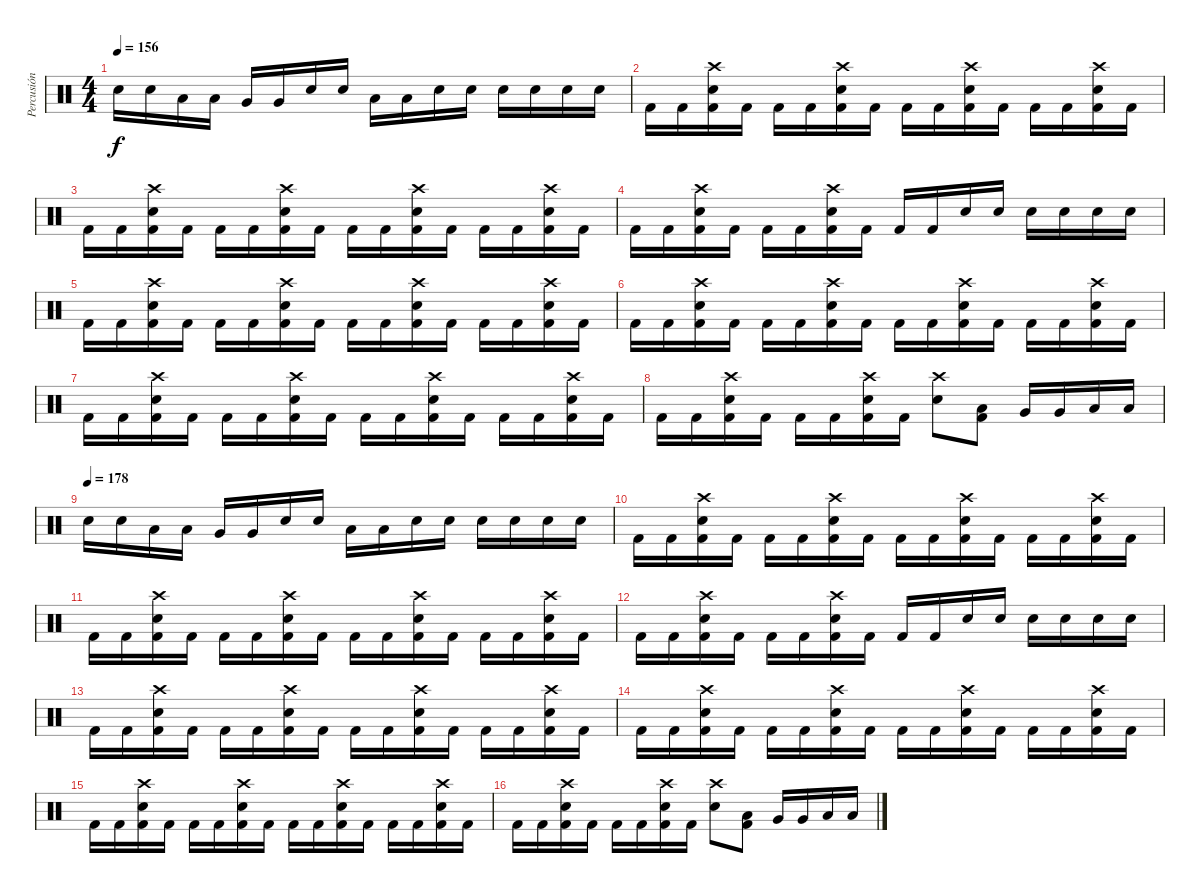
\track ("Percusión" "Percusión") {instrument percussion}
\staff {score}
\articulation defaults
\ts (4 4)
\tempo 156
\clef neutral
\ks c "Electric Snare (hit)".16{dy f} "Electric Snare (hit)".16 "Low Tom (hit)".16 "Low Tom (hit)".16 "Very Low Tom (hit)".16 "Very Low Tom (hit)".16 "Electric Snare (hit)".16 "Electric Snare (hit)".16 "Low Tom (hit)".16 "Low Tom (hit)".16 "Electric Snare (hit)".16 "Electric Snare (hit)".16 "Electric Snare (hit)".16 "Electric Snare (hit)".16 "Electric Snare (hit)".16 "Electric Snare (hit)".16
|
"Kick (hit) 2".16 "Kick (hit) 2".16 ("Crash high (hit)" "Electric Snare (hit)" "Kick (hit) 2").16 "Kick (hit) 2".16 "Kick (hit) 2".16 "Kick (hit) 2".16 ("Crash high (hit)" "Electric Snare (hit)" "Kick (hit) 2").16 "Kick (hit) 2".16 "Kick (hit) 2".16 "Kick (hit) 2".16 ("Crash high (hit)" "Electric Snare (hit)" "Kick (hit) 2").16 "Kick (hit) 2".16 "Kick (hit) 2".16 "Kick (hit) 2".16 ("Crash high (hit)" "Electric Snare (hit)" "Kick (hit) 2").16 "Kick (hit) 2".16 |
"Kick (hit) 2".16 "Kick (hit) 2".16 ("Crash high (hit)" "Electric Snare (hit)" "Kick (hit) 2").16 "Kick (hit) 2".16 "Kick (hit) 2".16 "Kick (hit) 2".16 ("Crash high (hit)" "Electric Snare (hit)" "Kick (hit) 2").16 "Kick (hit) 2".16 "Kick (hit) 2".16 "Kick (hit) 2".16 ("Crash high (hit)" "Electric Snare (hit)" "Kick (hit) 2").16 "Kick (hit) 2".16 "Kick (hit) 2".16 "Kick (hit) 2".16 ("Crash high (hit)" "Electric Snare (hit)" "Kick (hit) 2").16 "Kick (hit) 2".16 |
"Kick (hit) 2".16 "Kick (hit) 2".16 ("Crash high (hit)" "Electric Snare (hit)" "Kick (hit) 2").16 "Kick (hit) 2".16 "Kick (hit) 2".16 "Kick (hit) 2".16 ("Crash high (hit)" "Electric Snare (hit)" "Kick (hit) 2").16 "Kick (hit) 2".16 "Kick (hit) 2".16 "Kick (hit) 2".16 "Electric Snare (hit)".16 "Electric Snare (hit)".16 "Electric Snare (hit)".16 "Electric Snare (hit)".16 "Electric Snare (hit)".16 "Electric Snare (hit)".16 |
"Kick (hit) 2".16 "Kick (hit) 2".16 ("Crash high (hit)" "Electric Snare (hit)" "Kick (hit) 2").16 "Kick (hit) 2".16 "Kick (hit) 2".16 "Kick (hit) 2".16 ("Crash high (hit)" "Electric Snare (hit)" "Kick (hit) 2").16 "Kick (hit) 2".16 "Kick (hit) 2".16 "Kick (hit) 2".16 ("Crash high (hit)" "Electric Snare (hit)" "Kick (hit) 2").16 "Kick (hit) 2".16 "Kick (hit) 2".16 "Kick (hit) 2".16 ("Crash high (hit)" "Electric Snare (hit)" "Kick (hit) 2").16 "Kick (hit) 2".16 |
"Kick (hit) 2".16 "Kick (hit) 2".16 ("Crash high (hit)" "Electric Snare (hit)" "Kick (hit) 2").16 "Kick (hit) 2".16 "Kick (hit) 2".16 "Kick (hit) 2".16 ("Crash high (hit)" "Electric Snare (hit)" "Kick (hit) 2").16 "Kick (hit) 2".16 "Kick (hit) 2".16 "Kick (hit) 2".16 ("Crash high (hit)" "Electric Snare (hit)" "Kick (hit) 2").16 "Kick (hit) 2".16 "Kick (hit) 2".16 "Kick (hit) 2".16 ("Crash high (hit)" "Electric Snare (hit)" "Kick (hit) 2").16 "Kick (hit) 2".16 |
"Kick (hit) 2".16 "Kick (hit) 2".16 ("Crash high (hit)" "Electric Snare (hit)" "Kick (hit) 2").16 "Kick (hit) 2".16 "Kick (hit) 2".16 "Kick (hit) 2".16 ("Crash high (hit)" "Electric Snare (hit)" "Kick (hit) 2").16 "Kick (hit) 2".16 "Kick (hit) 2".16 "Kick (hit) 2".16 ("Crash high (hit)" "Electric Snare (hit)" "Kick (hit) 2").16 "Kick (hit) 2".16 "Kick (hit) 2".16 "Kick (hit) 2".16 ("Crash high (hit)" "Electric Snare (hit)" "Kick (hit) 2").16 "Kick (hit) 2".16 |
"Kick (hit) 2".16 "Kick (hit) 2".16 ("Crash high (hit)" "Electric Snare (hit)" "Kick (hit) 2").16 "Kick (hit) 2".16 "Kick (hit) 2".16 "Kick (hit) 2".16 ("Crash high (hit)" "Electric Snare (hit)" "Kick (hit) 2").16 "Kick (hit) 2".16 ("Crash high (hit)" "Electric Snare (hit)").8 ("Low Tom (hit)" "Kick (hit) 2").8 "Very Low Tom (hit)".16 "Very Low Tom (hit)".16 "Low Floor Tom (hit)".16 "Low Floor Tom (hit)".16 |
\tempo (178)
"Electric Snare (hit)".16 "Electric Snare (hit)".16 "Low Tom (hit)".16 "Low Tom (hit)".16 "Very Low Tom (hit)".16 "Very Low Tom (hit)".16 "Electric Snare (hit)".16 "Electric Snare (hit)".16 "Low Tom (hit)".16 "Low Tom (hit)".16 "Electric Snare (hit)".16 "Electric Snare (hit)".16 "Electric Snare (hit)".16 "Electric Snare (hit)".16 "Electric Snare (hit)".16 "Electric Snare (hit)".16 |
"Kick (hit) 2".16 "Kick (hit) 2".16 ("Crash high (hit)" "Electric Snare (hit)" "Kick (hit) 2").16 "Kick (hit) 2".16 "Kick (hit) 2".16 "Kick (hit) 2".16 ("Crash high (hit)" "Electric Snare (hit)" "Kick (hit) 2").16 "Kick (hit) 2".16 "Kick (hit) 2".16 "Kick (hit) 2".16 ("Crash high (hit)" "Electric Snare (hit)" "Kick (hit) 2").16 "Kick (hit) 2".16 "Kick (hit) 2".16 "Kick (hit) 2".16 ("Crash high (hit)" "Electric Snare (hit)" "Kick (hit) 2").16 "Kick (hit) 2".16 |
"Kick (hit) 2".16 "Kick (hit) 2".16 ("Crash high (hit)" "Electric Snare (hit)" "Kick (hit) 2").16 "Kick (hit) 2".16 "Kick (hit) 2".16 "Kick (hit) 2".16 ("Crash high (hit)" "Electric Snare (hit)" "Kick (hit) 2").16 "Kick (hit) 2".16 "Kick (hit) 2".16 "Kick (hit) 2".16 ("Crash high (hit)" "Electric Snare (hit)" "Kick (hit) 2").16 "Kick (hit) 2".16 "Kick (hit) 2".16 "Kick (hit) 2".16 ("Crash high (hit)" "Electric Snare (hit)" "Kick (hit) 2").16 "Kick (hit) 2".16 |
"Kick (hit) 2".16 "Kick (hit) 2".16 ("Crash high (hit)" "Electric Snare (hit)" "Kick (hit) 2").16 "Kick (hit) 2".16 "Kick (hit) 2".16 "Kick (hit) 2".16 ("Crash high (hit)" "Electric Snare (hit)" "Kick (hit) 2").16 "Kick (hit) 2".16 "Kick (hit) 2".16 "Kick (hit) 2".16 "Electric Snare (hit)".16 "Electric Snare (hit)".16 "Electric Snare (hit)".16 "Electric Snare (hit)".16 "Electric Snare (hit)".16 "Electric Snare (hit)".16 |
"Kick (hit) 2".16 "Kick (hit) 2".16 ("Crash high (hit)" "Electric Snare (hit)" "Kick (hit) 2").16 "Kick (hit) 2".16 "Kick (hit) 2".16 "Kick (hit) 2".16 ("Crash high (hit)" "Electric Snare (hit)" "Kick (hit) 2").16 "Kick (hit) 2".16 "Kick (hit) 2".16 "Kick (hit) 2".16 ("Crash high (hit)" "Electric Snare (hit)" "Kick (hit) 2").16 "Kick (hit) 2".16 "Kick (hit) 2".16 "Kick (hit) 2".16 ("Crash high (hit)" "Electric Snare (hit)" "Kick (hit) 2").16 "Kick (hit) 2".16 |
"Kick (hit) 2".16 "Kick (hit) 2".16 ("Crash high (hit)" "Electric Snare (hit)" "Kick (hit) 2").16 "Kick (hit) 2".16 "Kick (hit) 2".16 "Kick (hit) 2".16 ("Crash high (hit)" "Electric Snare (hit)" "Kick (hit) 2").16 "Kick (hit) 2".16 "Kick (hit) 2".16 "Kick (hit) 2".16 ("Crash high (hit)" "Electric Snare (hit)" "Kick (hit) 2").16 "Kick (hit) 2".16 "Kick (hit) 2".16 "Kick (hit) 2".16 ("Crash high (hit)" "Electric Snare (hit)" "Kick (hit) 2").16 "Kick (hit) 2".16 |
"Kick (hit) 2".16 "Kick (hit) 2".16 ("Crash high (hit)" "Electric Snare (hit)" "Kick (hit) 2").16 "Kick (hit) 2".16 "Kick (hit) 2".16 "Kick (hit) 2".16 ("Crash high (hit)" "Electric Snare (hit)" "Kick (hit) 2").16 "Kick (hit) 2".16 "Kick (hit) 2".16 "Kick (hit) 2".16 ("Crash high (hit)" "Electric Snare (hit)" "Kick (hit) 2").16 "Kick (hit) 2".16 "Kick (hit) 2".16 "Kick (hit) 2".16 ("Crash high (hit)" "Electric Snare (hit)" "Kick (hit) 2").16 "Kick (hit) 2".16 |
"Kick (hit) 2".16 "Kick (hit) 2".16 ("Crash high (hit)" "Electric Snare (hit)" "Kick (hit) 2").16 "Kick (hit) 2".16 "Kick (hit) 2".16 "Kick (hit) 2".16 ("Crash high (hit)" "Electric Snare (hit)" "Kick (hit) 2").16 "Kick (hit) 2".16 ("Crash high (hit)" "Electric Snare (hit)").8 ("Low Tom (hit)" "Kick (hit) 2").8 "Very Low Tom (hit)".16 "Very Low Tom (hit)".16 "Low Floor Tom (hit)".16 "Low Floor Tom (hit)".16
